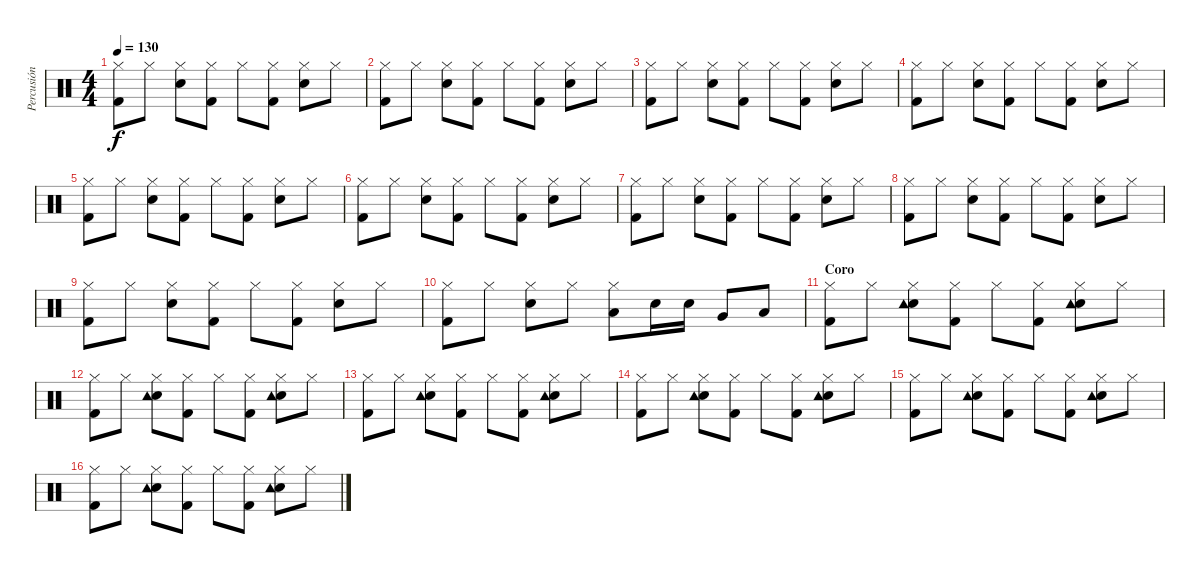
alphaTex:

\track ("Percusión" "Percusión") {instrument percussion}
\staff {score}
\articulation defaults
\ts (4 4)
\tempo 130
\clef neutral
\ks c
("Hi-Hat (closed)" "Kick (hit) 2").8{dy f} "Hi-Hat (closed)".8 ("Hi-Hat (closed)" "Electric Snare (hit)").8 ("Hi-Hat (closed)" "Kick (hit) 2").8 "Hi-Hat (closed)".8 ("Hi-Hat (closed)" "Kick (hit) 2").8 ("Hi-Hat (closed)" "Electric Snare (hit)").8 "Hi-Hat (closed)".8 |
("Hi-Hat (closed)" "Kick (hit) 2").8 "Hi-Hat (closed)".8 ("Hi-Hat (closed)" "Electric Snare (hit)").8 ("Hi-Hat (closed)" "Kick (hit) 2").8 "Hi-Hat (closed)".8 ("Hi-Hat (closed)" "Kick (hit) 2").8 ("Hi-Hat (closed)" "Electric Snare (hit)").8 "Hi-Hat (closed)".8 |
("Hi-Hat (closed)" "Kick (hit) 2").8 "Hi-Hat (closed)".8 ("Hi-Hat (closed)" "Electric Snare (hit)").8 ("Hi-Hat (closed)" "Kick (hit) 2").8 "Hi-Hat (closed)".8 ("Hi-Hat (closed)" "Kick (hit) 2").8 ("Hi-Hat (closed)" "Electric Snare (hit)").8 "Hi-Hat (closed)".8 |
("Hi-Hat (closed)" "Kick (hit) 2").8 "Hi-Hat (closed)".8 ("Hi-Hat (closed)" "Electric Snare (hit)").8 ("Hi-Hat (closed)" "Kick (hit) 2").8 "Hi-Hat (closed)".8 ("Hi-Hat (closed)" "Kick (hit) 2").8 ("Hi-Hat (closed)" "Electric Snare (hit)").8 "Hi-Hat (closed)".8 |
("Hi-Hat (closed)" "Kick (hit) 2").8 "Hi-Hat (closed)".8 ("Hi-Hat (closed)" "Electric Snare (hit)").8 ("Hi-Hat (closed)" "Kick (hit) 2").8 "Hi-Hat (closed)".8 ("Hi-Hat (closed)" "Kick (hit) 2").8 ("Hi-Hat (closed)" "Electric Snare (hit)").8 "Hi-Hat (closed)".8 |
("Hi-Hat (closed)" "Kick (hit) 2").8 "Hi-Hat (closed)".8 ("Hi-Hat (closed)" "Electric Snare (hit)").8 ("Hi-Hat (closed)" "Kick (hit) 2").8 "Hi-Hat (closed)".8 ("Hi-Hat (closed)" "Kick (hit) 2").8 ("Hi-Hat (closed)" "Electric Snare (hit)").8 "Hi-Hat (closed)".8 |
("Hi-Hat (closed)" "Kick (hit) 2").8 "Hi-Hat (closed)".8 ("Hi-Hat (closed)" "Electric Snare (hit)").8 ("Hi-Hat (closed)" "Kick (hit) 2").8 "Hi-Hat (closed)".8 ("Hi-Hat (closed)" "Kick (hit) 2").8 ("Hi-Hat (closed)" "Electric Snare (hit)").8 "Hi-Hat (closed)".8 |
("Hi-Hat (closed)" "Kick (hit) 2").8 "Hi-Hat (closed)".8 ("Hi-Hat (closed)" "Electric Snare (hit)").8 ("Hi-Hat (closed)" "Kick (hit) 2").8 "Hi-Hat (closed)".8 ("Hi-Hat (closed)" "Kick (hit) 2").8 ("Hi-Hat (closed)" "Electric Snare (hit)").8 "Hi-Hat (closed)".8 |
("Hi-Hat (closed)" "Kick (hit) 2").8 "Hi-Hat (closed)".8 ("Hi-Hat (closed)" "Electric Snare (hit)").8 ("Hi-Hat (closed)" "Kick (hit) 2").8 "Hi-Hat (closed)".8 ("Hi-Hat (closed)" "Kick (hit) 2").8 ("Hi-Hat (closed)" "Electric Snare (hit)").8 "Hi-Hat (closed)".8 |
("Hi-Hat (closed)" "Kick (hit) 2").8 "Hi-Hat (closed)".8 ("Hi-Hat (closed)" "Electric Snare (hit)").8 "Hi-Hat (closed)".8 ("Hi-Hat (closed)" "Low Tom (hit)").8 "Electric Snare (hit)".16 "Electric Snare (hit)".16 "Very Low Tom (hit)".8 "Low Floor Tom (hit)".8 |
\section ("" "Coro")
("Hi-Hat (closed)" "Kick (hit) 2").8 "Hi-Hat (closed)".8 ("Hi-Hat (closed)" "Electric Snare (hit)" "Tambourine (hit)").8 ("Hi-Hat (closed)" "Kick (hit) 2").8 "Hi-Hat (closed)".8 ("Hi-Hat (closed)" "Kick (hit) 2").8 ("Hi-Hat (closed)" "Electric Snare (hit)" "Tambourine (hit)").8 "Hi-Hat (closed)".8 |
("Hi-Hat (closed)" "Kick (hit) 2").8 "Hi-Hat (closed)".8 ("Hi-Hat (closed)" "Electric Snare (hit)" "Tambourine (hit)").8 ("Hi-Hat (closed)" "Kick (hit) 2").8 "Hi-Hat (closed)".8 ("Hi-Hat (closed)" "Kick (hit) 2").8 ("Hi-Hat (closed)" "Electric Snare (hit)" "Tambourine (hit)").8 "Hi-Hat (closed)".8 |
("Hi-Hat (closed)" "Kick (hit) 2").8 "Hi-Hat (closed)".8 ("Hi-Hat (closed)" "Electric Snare (hit)" "Tambourine (hit)").8 ("Hi-Hat (closed)" "Kick (hit) 2").8 "Hi-Hat (closed)".8 ("Hi-Hat (closed)" "Kick (hit) 2").8 ("Hi-Hat (closed)" "Electric Snare (hit)" "Tambourine (hit)").8 "Hi-Hat (closed)".8 |
("Hi-Hat (closed)" "Kick (hit) 2").8 "Hi-Hat (closed)".8 ("Hi-Hat (closed)" "Electric Snare (hit)" "Tambourine (hit)").8 ("Hi-Hat (closed)" "Kick (hit) 2").8 "Hi-Hat (closed)".8 ("Hi-Hat (closed)" "Kick (hit) 2").8 ("Hi-Hat (closed)" "Electric Snare (hit)" "Tambourine (hit)").8 "Hi-Hat (closed)".8 |
("Hi-Hat (closed)" "Kick (hit) 2").8 "Hi-Hat (closed)".8 ("Hi-Hat (closed)" "Electric Snare (hit)" "Tambourine (hit)").8 ("Hi-Hat (closed)" "Kick (hit) 2").8 "Hi-Hat (closed)".8 ("Hi-Hat (closed)" "Kick (hit) 2").8 ("Hi-Hat (closed)" "Electric Snare (hit)" "Tambourine (hit)").8 "Hi-Hat (closed)".8 |
("Hi-Hat (closed)" "Kick (hit) 2").8 "Hi-Hat (closed)".8 ("Hi-Hat (closed)" "Electric Snare (hit)" "Tambourine (hit)").8 ("Hi-Hat (closed)" "Kick (hit) 2").8 "Hi-Hat (closed)".8 ("Hi-Hat (closed)" "Kick (hit) 2").8 ("Hi-Hat (closed)" "Electric Snare (hit)" "Tambourine (hit)").8 "Hi-Hat (closed)".8
